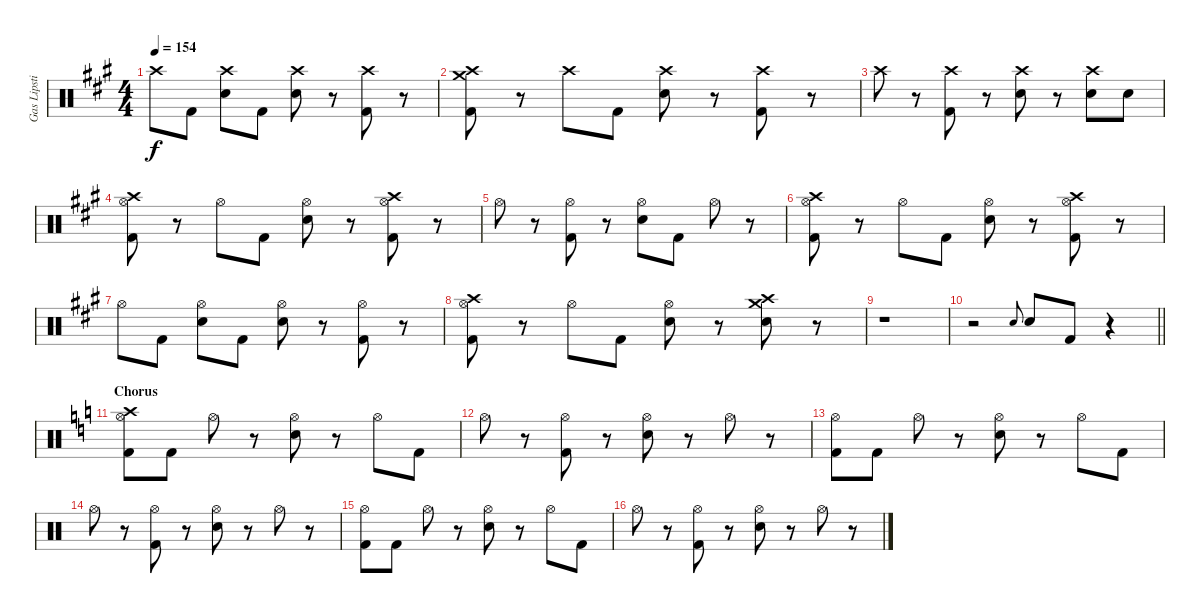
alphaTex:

\track ("Gas Lipstick (Drums)" "Gas Lipsti") {instrument percussion}
\staff {score}
\articulation defaults
\ts (4 4)
\tempo 154
\clef neutral
\ks a "Crash high (hit)".8{dy f} "Kick (hit) 2".8
("Crash high (hit)" "Snare (hit) 2").8 "Kick (hit) 2".8 ("Crash high (hit)" "Snare (hit) 2").8 r.8 ("Crash high (hit)" "Kick (hit) 2").8 r.8 |
("Crash medium (hit)" "Crash high (hit)" "Kick (hit) 2").8 r.8 "Crash high (hit)".8 "Kick (hit) 2".8 ("Crash high (hit)" "Snare (hit) 2").8 r.8 ("Crash high (hit)" "Kick (hit) 2").8 r.8 |
"Crash high (hit)".8 r.8 ("Crash high (hit)" "Kick (hit) 2").8 r.8 ("Crash high (hit)" "Snare (hit) 2").8 r.8 ("Crash high (hit)" "Snare (hit) 2").8 "Snare (hit) 2".8 |
("Crash high (hit)" "Hi-Hat (open)" "Kick (hit) 2").8 r.8 "Hi-Hat (open)".8 "Kick (hit) 2".8 ("Hi-Hat (open)" "Snare (hit) 2").8 r.8 ("Crash high (hit)" "Hi-Hat (open)" "Kick (hit) 2").8 r.8 |
"Hi-Hat (open)".8 r.8 ("Hi-Hat (open)" "Kick (hit) 2").8 r.8 ("Hi-Hat (open)" "Snare (hit) 2").8 "Kick (hit) 2".8 "Hi-Hat (open)".8 r.8 |
("Crash high (hit)" "Hi-Hat (open)" "Kick (hit) 2").8 r.8 "Hi-Hat (open)".8 "Kick (hit) 2".8 ("Hi-Hat (open)" "Snare (hit) 2").8 r.8 ("Crash high (hit)" "Hi-Hat (open)" "Kick (hit) 2").8 r.8 |
"Hi-Hat (open)".8 "Kick (hit) 2".8 ("Hi-Hat (open)" "Snare (hit) 2").8 "Kick (hit) 2".8 ("Hi-Hat (open)" "Snare (hit) 2").8 r.8 ("Hi-Hat (open)" "Kick (hit) 2").8 r.8 |
("Crash high (hit)" "Hi-Hat (open)" "Kick (hit) 2").8 r.8 "Hi-Hat (open)".8 "Kick (hit) 2".8 ("Hi-Hat (open)" "Snare (hit) 2").8 r.8 ("Crash medium (hit)" "Crash high (hit)" "Snare (hit) 2").8 r.8 |
r.1 |
\barLineRight lightlight
r.2 "Snare (hit) 2".8{gr onbeat} "Snare (hit) 2".8 "Kick (hit) 2".8 r.4 |
\section ("" "Chorus")
\ks c
("Crash high (hit)" "Hi-Hat (open)" "Kick (hit) 2").8 "Kick (hit) 2".8 "Hi-Hat (open)".8 r.8 ("Hi-Hat (open)" "Snare (hit) 2").8 r.8 "Hi-Hat (open)".8 "Kick (hit) 2".8 |
"Hi-Hat (open)".8 r.8 ("Hi-Hat (open)" "Kick (hit) 2").8 r.8 ("Hi-Hat (open)" "Snare (hit) 2").8 r.8 "Hi-Hat (open)".8 r.8 |
("Hi-Hat (open)" "Kick (hit) 2").8 "Kick (hit) 2".8 "Hi-Hat (open)".8 r.8 ("Hi-Hat (open)" "Snare (hit) 2").8 r.8 "Hi-Hat (open)".8 "Kick (hit) 2".8 |
"Hi-Hat (open)".8 r.8 ("Hi-Hat (open)" "Kick (hit) 2").8 r.8 ("Hi-Hat (open)" "Snare (hit) 2").8 r.8 "Hi-Hat (open)".8 r.8 |
("Hi-Hat (open)" "Kick (hit) 2").8 "Kick (hit) 2".8 "Hi-Hat (open)".8 r.8 ("Hi-Hat (open)" "Snare (hit) 2").8 r.8 "Hi-Hat (open)".8 "Kick (hit) 2".8 |
"Hi-Hat (open)".8 r.8 ("Hi-Hat (open)" "Kick (hit) 2").8 r.8 ("Hi-Hat (open)" "Snare (hit) 2").8 r.8 "Hi-Hat (open)".8 r.8
